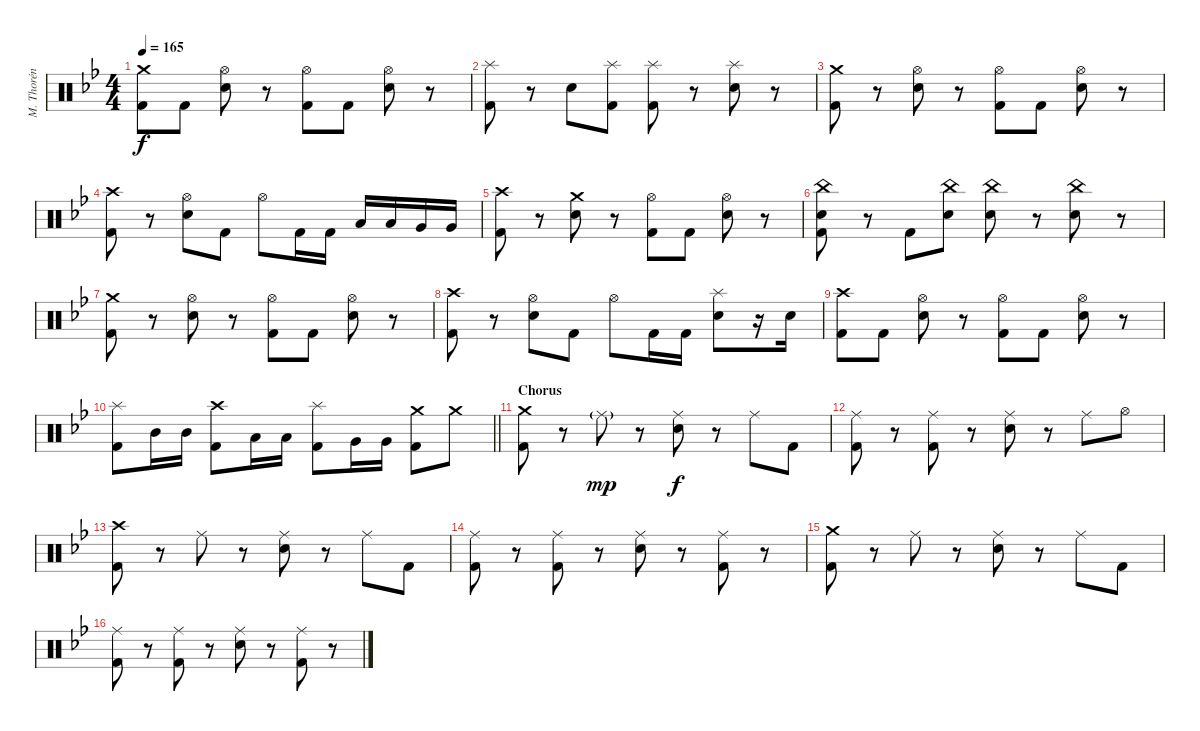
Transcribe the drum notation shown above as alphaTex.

\track ("M. Thorén (Drums)" "M. Thorén ") {instrument percussion}
\staff {score}
\articulation defaults
\ts (4 4)
\tempo 165
\clef neutral
\ks gminor
("Crash medium (hit)" "Kick (hit) 2").8{dy f} "Kick (hit) 2".8 ("Hi-Hat (open)" "Electric Snare (hit)").8 r.8 ("Hi-Hat (open)" "Kick (hit) 2").8 "Kick (hit) 2".8 ("Hi-Hat (open)" "Electric Snare (hit)").8 r.8 |
("Splash (hit)" "Kick (hit) 2").8 r.8 "Electric Snare (hit)".8 ("Splash (hit)" "Kick (hit) 2").8 ("Splash (hit)" "Kick (hit) 2").8 r.8 ("Splash (hit)" "Electric Snare (hit)").8 r.8 |
("Crash medium (hit)" "Kick (hit) 2").8 r.8 ("Hi-Hat (open)" "Electric Snare (hit)").8 r.8 ("Hi-Hat (open)" "Kick (hit) 2").8 "Kick (hit) 2".8 ("Hi-Hat (open)" "Electric Snare (hit)").8 r.8 |
("Crash high (hit)" "Kick (hit) 2").8 r.8 ("Hi-Hat (open)" "Electric Snare (hit)").8 "Kick (hit) 2".8 "Hi-Hat (open)".8 "Kick (hit) 2".16 "Kick (hit) 2".16 "Low Tom (hit)".16 "Low Tom (hit)".16 "Very Low Tom (hit)".16 "Very Low Tom (hit)".16 |
("Crash high (hit)" "Kick (hit) 2").8 r.8 ("Crash medium (hit)" "Electric Snare (hit)").8 r.8 ("Hi-Hat (open)" "Kick (hit) 2").8 "Kick (hit) 2".8 ("Hi-Hat (open)" "Electric Snare (hit)").8 r.8 |
("China (hit)" "Electric Snare (hit)" "Kick (hit) 2").8 r.8 "Kick (hit) 2".8 ("China (hit)" "Electric Snare (hit)").8 ("China (hit)" "Electric Snare (hit)").8 r.8 ("China (hit)" "Electric Snare (hit)").8 r.8 |
("Crash medium (hit)" "Kick (hit) 2").8 r.8 ("Hi-Hat (open)" "Electric Snare (hit)").8 r.8 ("Hi-Hat (open)" "Kick (hit) 2").8 "Kick (hit) 2".8 ("Hi-Hat (open)" "Electric Snare (hit)").8 r.8 |
("Crash high (hit)" "Kick (hit) 2").8 r.8 ("Hi-Hat (open)" "Electric Snare (hit)").8 "Kick (hit) 2".8 "Hi-Hat (open)".8 "Kick (hit) 2".16 "Kick (hit) 2".16 ("Splash (hit)" "Electric Snare (hit)").8 r.16 "Electric Snare (hit)".16 |
("Crash high (hit)" "Kick (hit) 2").8 "Kick (hit) 2".8 ("Hi-Hat (open)" "Electric Snare (hit)").8 r.8 ("Hi-Hat (open)" "Kick (hit) 2").8 "Kick (hit) 2".8 ("Hi-Hat (open)" "Electric Snare (hit)").8 r.8 |
\barLineRight lightlight
("Splash (hit)" "Kick (hit) 2").8 "Mid Tom (hit)".16 "Mid Tom (hit)".16 ("Crash high (hit)" "Kick (hit) 2").8 "Low Tom (hit)".16 "Low Tom (hit)".16 ("Splash (hit)" "Kick (hit) 2").8 "Very Low Tom (hit)".16 "Very Low Tom (hit)".16 ("Crash medium (hit)" "Kick (hit) 2").8 "Crash medium (hit)".8 |
\section ("" "Chorus")
("Crash medium (hit)" "Kick (hit) 2").8 r.8 "Ride (middle)"{g}.8{dy mp} r.8 ("Ride (middle)" "Electric Snare (hit)").8{dy f} r.8 "Ride (middle)".8 "Kick (hit) 2".8 |
("Ride (middle)" "Kick (hit) 2").8 r.8 ("Ride (middle)" "Kick (hit) 2").8 r.8 ("Ride (middle)" "Electric Snare (hit)").8 r.8 "Ride (middle)".8 "Hi-Hat (open)".8 |
("Crash high (hit)" "Kick (hit) 2").8 r.8 "Ride (middle)".8 r.8 ("Ride (middle)" "Electric Snare (hit)").8 r.8 "Ride (middle)".8 "Kick (hit) 2".8 |
("Ride (middle)" "Kick (hit) 2").8 r.8 ("Ride (middle)" "Kick (hit) 2").8 r.8 ("Ride (middle)" "Electric Snare (hit)").8 r.8 ("Ride (middle)" "Kick (hit) 2").8 r.8 |
("Crash medium (hit)" "Kick (hit) 2").8 r.8 "Ride (middle)".8 r.8 ("Ride (middle)" "Electric Snare (hit)").8 r.8 "Ride (middle)".8 "Kick (hit) 2".8 |
("Ride (middle)" "Kick (hit) 2").8 r.8 ("Ride (middle)" "Kick (hit) 2").8 r.8 ("Ride (middle)" "Electric Snare (hit)").8 r.8 ("Ride (middle)" "Kick (hit) 2").8 r.8
